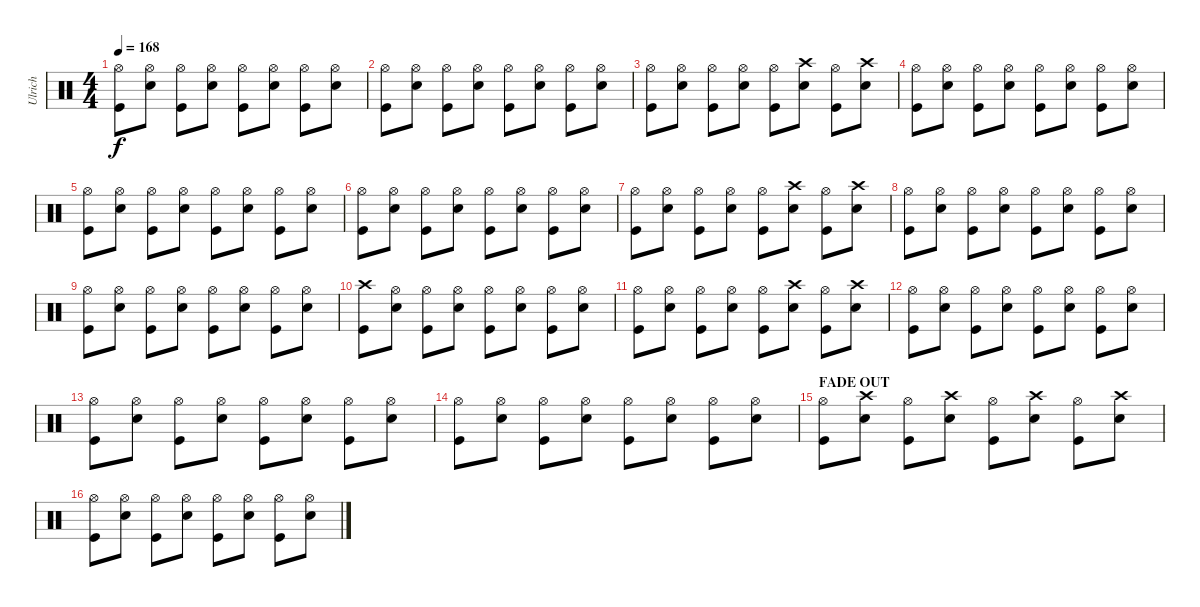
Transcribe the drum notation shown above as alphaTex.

\track ("Ulrich" "Ulrich") {instrument percussion}
\staff {score}
\articulation defaults
\ts (4 4)
\tempo 168
\clef neutral
\ks c
("Hi-Hat (open)" "Kick (hit)").8{dy f} ("Hi-Hat (open)" "Snare (hit) 2").8 ("Hi-Hat (open)" "Kick (hit)").8 ("Hi-Hat (open)" "Snare (hit) 2").8 ("Hi-Hat (open)" "Kick (hit)").8 ("Hi-Hat (open)" "Snare (hit) 2").8 ("Hi-Hat (open)" "Kick (hit)").8 ("Hi-Hat (open)" "Snare (hit) 2").8 |
("Hi-Hat (open)" "Kick (hit)").8 ("Hi-Hat (open)" "Snare (hit) 2").8 ("Hi-Hat (open)" "Kick (hit)").8 ("Hi-Hat (open)" "Snare (hit) 2").8 ("Hi-Hat (open)" "Kick (hit)").8 ("Hi-Hat (open)" "Snare (hit) 2").8 ("Hi-Hat (open)" "Kick (hit)").8 ("Hi-Hat (open)" "Snare (hit) 2").8 |
("Hi-Hat (open)" "Kick (hit)").8 ("Hi-Hat (open)" "Snare (hit) 2").8 ("Hi-Hat (open)" "Kick (hit)").8 ("Hi-Hat (open)" "Snare (hit) 2").8 ("Hi-Hat (open)" "Kick (hit)").8 ("Crash high (hit)" "Snare (hit) 2").8 ("Hi-Hat (open)" "Kick (hit)").8 ("Crash high (hit)" "Snare (hit) 2").8 |
("Hi-Hat (open)" "Kick (hit)").8 ("Hi-Hat (open)" "Snare (hit) 2").8 ("Hi-Hat (open)" "Kick (hit)").8 ("Hi-Hat (open)" "Snare (hit) 2").8 ("Hi-Hat (open)" "Kick (hit)").8 ("Hi-Hat (open)" "Snare (hit) 2").8 ("Hi-Hat (open)" "Kick (hit)").8 ("Hi-Hat (open)" "Snare (hit) 2").8 |
("Hi-Hat (open)" "Kick (hit)").8 ("Hi-Hat (open)" "Snare (hit) 2").8 ("Hi-Hat (open)" "Kick (hit)").8 ("Hi-Hat (open)" "Snare (hit) 2").8 ("Hi-Hat (open)" "Kick (hit)").8 ("Hi-Hat (open)" "Snare (hit) 2").8 ("Hi-Hat (open)" "Kick (hit)").8 ("Hi-Hat (open)" "Snare (hit) 2").8 |
("Hi-Hat (open)" "Kick (hit)").8 ("Hi-Hat (open)" "Snare (hit) 2").8 ("Hi-Hat (open)" "Kick (hit)").8 ("Hi-Hat (open)" "Snare (hit) 2").8 ("Hi-Hat (open)" "Kick (hit)").8 ("Hi-Hat (open)" "Snare (hit) 2").8 ("Hi-Hat (open)" "Kick (hit)").8 ("Hi-Hat (open)" "Snare (hit) 2").8 |
("Hi-Hat (open)" "Kick (hit)").8 ("Hi-Hat (open)" "Snare (hit) 2").8 ("Hi-Hat (open)" "Kick (hit)").8 ("Hi-Hat (open)" "Snare (hit) 2").8 ("Hi-Hat (open)" "Kick (hit)").8 ("Crash high (hit)" "Snare (hit) 2").8 ("Hi-Hat (open)" "Kick (hit)").8 ("Crash high (hit)" "Snare (hit) 2").8 |
("Hi-Hat (open)" "Kick (hit)").8 ("Hi-Hat (open)" "Snare (hit) 2").8 ("Hi-Hat (open)" "Kick (hit)").8 ("Hi-Hat (open)" "Snare (hit) 2").8 ("Hi-Hat (open)" "Kick (hit)").8 ("Hi-Hat (open)" "Snare (hit) 2").8 ("Hi-Hat (open)" "Kick (hit)").8 ("Hi-Hat (open)" "Snare (hit) 2").8 |
("Hi-Hat (open)" "Kick (hit)").8 ("Hi-Hat (open)" "Snare (hit) 2").8 ("Hi-Hat (open)" "Kick (hit)").8 ("Hi-Hat (open)" "Snare (hit) 2").8 ("Hi-Hat (open)" "Kick (hit)").8 ("Hi-Hat (open)" "Snare (hit) 2").8 ("Hi-Hat (open)" "Kick (hit)").8 ("Hi-Hat (open)" "Snare (hit) 2").8 |
("Crash high (hit)" "Kick (hit)").8 ("Hi-Hat (open)" "Snare (hit) 2").8 ("Hi-Hat (open)" "Kick (hit)").8 ("Hi-Hat (open)" "Snare (hit) 2").8 ("Hi-Hat (open)" "Kick (hit)").8 ("Hi-Hat (open)" "Snare (hit) 2").8 ("Hi-Hat (open)" "Kick (hit)").8 ("Hi-Hat (open)" "Snare (hit) 2").8 |
("Hi-Hat (open)" "Kick (hit)").8 ("Hi-Hat (open)" "Snare (hit) 2").8 ("Hi-Hat (open)" "Kick (hit)").8 ("Hi-Hat (open)" "Snare (hit) 2").8 ("Hi-Hat (open)" "Kick (hit)").8 ("Crash high (hit)" "Snare (hit) 2").8 ("Hi-Hat (open)" "Kick (hit)").8 ("Crash high (hit)" "Snare (hit) 2").8 |
("Hi-Hat (open)" "Kick (hit)").8 ("Hi-Hat (open)" "Snare (hit) 2").8 ("Hi-Hat (open)" "Kick (hit)").8 ("Hi-Hat (open)" "Snare (hit) 2").8 ("Hi-Hat (open)" "Kick (hit)").8 ("Hi-Hat (open)" "Snare (hit) 2").8 ("Hi-Hat (open)" "Kick (hit)").8 ("Hi-Hat (open)" "Snare (hit) 2").8 |
("Hi-Hat (open)" "Kick (hit)").8 ("Hi-Hat (open)" "Snare (hit) 2").8 ("Hi-Hat (open)" "Kick (hit)").8 ("Hi-Hat (open)" "Snare (hit) 2").8 ("Hi-Hat (open)" "Kick (hit)").8 ("Hi-Hat (open)" "Snare (hit) 2").8 ("Hi-Hat (open)" "Kick (hit)").8 ("Hi-Hat (open)" "Snare (hit) 2").8 |
("Hi-Hat (open)" "Kick (hit)").8 ("Hi-Hat (open)" "Snare (hit) 2").8 ("Hi-Hat (open)" "Kick (hit)").8 ("Hi-Hat (open)" "Snare (hit) 2").8 ("Hi-Hat (open)" "Kick (hit)").8 ("Hi-Hat (open)" "Snare (hit) 2").8 ("Hi-Hat (open)" "Kick (hit)").8 ("Hi-Hat (open)" "Snare (hit) 2").8 |
\section ("" "FADE OUT")
("Hi-Hat (open)" "Kick (hit)").8{volume 10} ("Crash high (hit)" "Snare (hit) 2").8 ("Hi-Hat (open)" "Kick (hit)").8 ("Crash high (hit)" "Snare (hit) 2").8 ("Hi-Hat (open)" "Kick (hit)").8 ("Crash high (hit)" "Snare (hit) 2").8 ("Hi-Hat (open)" "Kick (hit)").8 ("Crash high (hit)" "Snare (hit) 2").8 |
("Hi-Hat (open)" "Kick (hit)").8{volume 4} ("Hi-Hat (open)" "Snare (hit) 2").8 ("Hi-Hat (open)" "Kick (hit)").8 ("Hi-Hat (open)" "Snare (hit) 2").8 ("Hi-Hat (open)" "Kick (hit)").8 ("Hi-Hat (open)" "Snare (hit) 2").8 ("Hi-Hat (open)" "Kick (hit)").8 ("Hi-Hat (open)" "Snare (hit) 2").8
